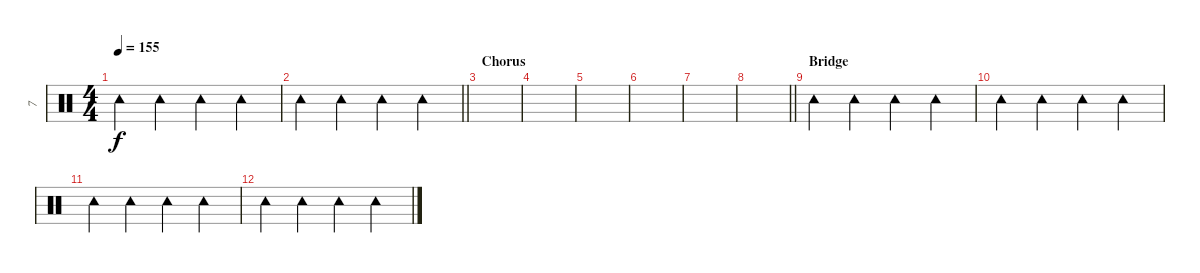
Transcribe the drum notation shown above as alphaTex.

\track ("7" "7") {instrument percussion}
\staff {score}
\articulation defaults
\ts (4 4)
\tempo 155
\clef neutral
\ks c "Tambourine (hit)".4{dy f} "Tambourine (hit)".4 "Tambourine (hit)".4 "Tambourine (hit)".4
|
\barLineRight lightlight "Tambourine (hit)".4 "Tambourine (hit)".4 "Tambourine (hit)".4 "Tambourine (hit)".4
|
\section ("" "Chorus")
|
|
|
|
|
\barLineRight lightlight
|
\section ("" "Bridge")
"Tambourine (hit)".4 "Tambourine (hit)".4 "Tambourine (hit)".4 "Tambourine (hit)".4 |
"Tambourine (hit)".4 "Tambourine (hit)".4 "Tambourine (hit)".4 "Tambourine (hit)".4 |
"Tambourine (hit)".4 "Tambourine (hit)".4 "Tambourine (hit)".4 "Tambourine (hit)".4 |
"Tambourine (hit)".4 "Tambourine (hit)".4 "Tambourine (hit)".4 "Tambourine (hit)".4
